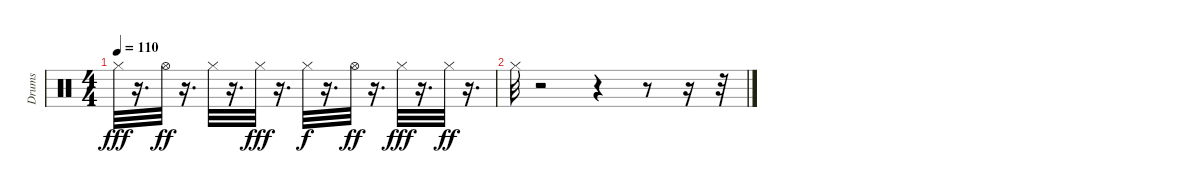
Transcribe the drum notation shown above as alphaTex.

\track ("Drums" "Drums") {instrument percussion}
\staff {score}
\articulation defaults
\ts (4 4)
\tempo 110
\clef neutral
\ks c "Hi-Hat (closed)".32{dy fff}
r.16{d} "Hi-Hat (open)".32{dy ff} r.16{d} "Hi-Hat (closed)".32 r.16{d} "Hi-Hat (closed)".32{dy fff} r.16{d} "Hi-Hat (closed)".32{dy f} r.16{d} "Hi-Hat (open)".32{dy ff} r.16{d} "Hi-Hat (closed)".32{dy fff} r.16{d} "Hi-Hat (closed)".32{dy ff} r.16{d} |
"Hi-Hat (closed)".32 r.2 r.4 r.8 r.16 r.32
